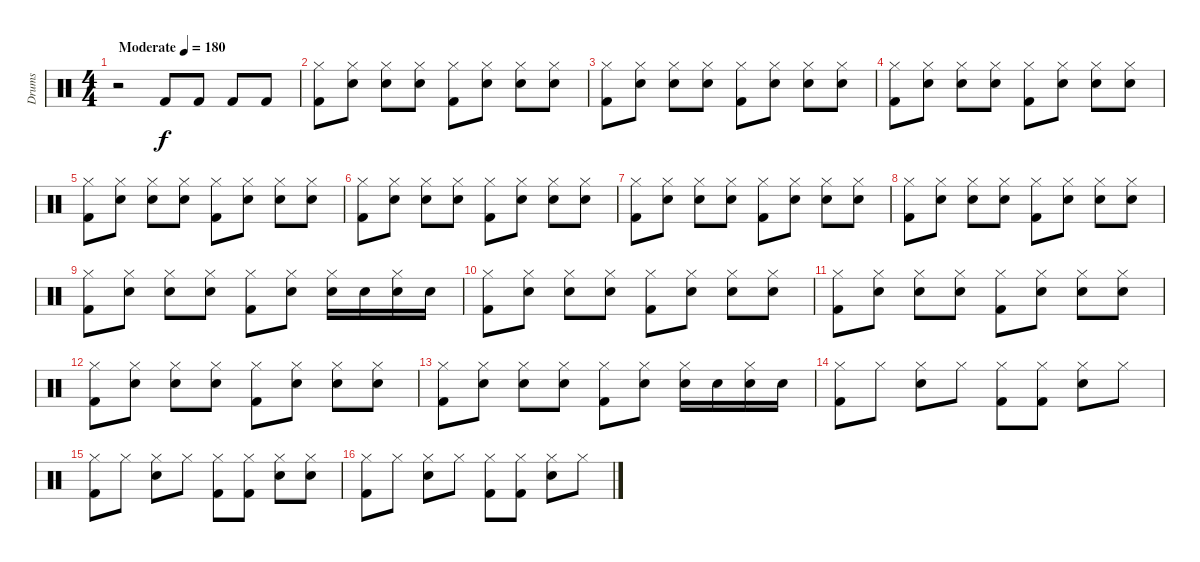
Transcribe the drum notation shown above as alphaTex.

\track ("Drums" "Drums") {instrument percussion}
\staff {score}
\articulation defaults
\ts (4 4)
\tempo (180 "Moderate")
\clef neutral
\ks c
r.2{dy f} "Kick (hit) 2".8 "Kick (hit) 2".8 "Kick (hit) 2".8 "Kick (hit) 2".8 |
("Kick (hit) 2" "Hi-Hat (closed)").8 ("Hi-Hat (closed)" "Snare (hit) 2").8 ("Hi-Hat (closed)" "Electric Snare (hit)").8 ("Hi-Hat (closed)" "Electric Snare (hit)").8 ("Hi-Hat (closed)" "Kick (hit) 2").8 ("Hi-Hat (closed)" "Snare (hit) 2").8 ("Hi-Hat (closed)" "Snare (hit) 2").8 ("Hi-Hat (closed)" "Snare (hit) 2").8 |
("Kick (hit) 2" "Hi-Hat (closed)").8 ("Hi-Hat (closed)" "Snare (hit) 2").8 ("Hi-Hat (closed)" "Electric Snare (hit)").8 ("Hi-Hat (closed)" "Electric Snare (hit)").8 ("Hi-Hat (closed)" "Kick (hit) 2").8 ("Hi-Hat (closed)" "Snare (hit) 2").8 ("Hi-Hat (closed)" "Snare (hit) 2").8 ("Hi-Hat (closed)" "Snare (hit) 2").8 |
("Kick (hit) 2" "Hi-Hat (closed)").8 ("Hi-Hat (closed)" "Snare (hit) 2").8 ("Hi-Hat (closed)" "Electric Snare (hit)").8 ("Hi-Hat (closed)" "Electric Snare (hit)").8 ("Hi-Hat (closed)" "Kick (hit) 2").8 ("Hi-Hat (closed)" "Snare (hit) 2").8 ("Hi-Hat (closed)" "Snare (hit) 2").8 ("Hi-Hat (closed)" "Snare (hit) 2").8 |
("Kick (hit) 2" "Hi-Hat (closed)").8 ("Hi-Hat (closed)" "Snare (hit) 2").8 ("Hi-Hat (closed)" "Electric Snare (hit)").8 ("Hi-Hat (closed)" "Electric Snare (hit)").8 ("Hi-Hat (closed)" "Kick (hit) 2").8 ("Hi-Hat (closed)" "Snare (hit) 2").8 ("Hi-Hat (closed)" "Snare (hit) 2").8 ("Hi-Hat (closed)" "Snare (hit) 2").8 |
("Kick (hit) 2" "Hi-Hat (closed)").8 ("Hi-Hat (closed)" "Snare (hit) 2").8 ("Hi-Hat (closed)" "Electric Snare (hit)").8 ("Hi-Hat (closed)" "Electric Snare (hit)").8 ("Hi-Hat (closed)" "Kick (hit) 2").8 ("Hi-Hat (closed)" "Snare (hit) 2").8 ("Hi-Hat (closed)" "Snare (hit) 2").8 ("Hi-Hat (closed)" "Snare (hit) 2").8 |
("Kick (hit) 2" "Hi-Hat (closed)").8 ("Hi-Hat (closed)" "Snare (hit) 2").8 ("Hi-Hat (closed)" "Electric Snare (hit)").8 ("Hi-Hat (closed)" "Electric Snare (hit)").8 ("Hi-Hat (closed)" "Kick (hit) 2").8 ("Hi-Hat (closed)" "Snare (hit) 2").8 ("Hi-Hat (closed)" "Snare (hit) 2").8 ("Hi-Hat (closed)" "Snare (hit) 2").8 |
("Kick (hit) 2" "Hi-Hat (closed)").8 ("Hi-Hat (closed)" "Snare (hit) 2").8 ("Hi-Hat (closed)" "Electric Snare (hit)").8 ("Hi-Hat (closed)" "Electric Snare (hit)").8 ("Hi-Hat (closed)" "Kick (hit) 2").8 ("Hi-Hat (closed)" "Snare (hit) 2").8 ("Hi-Hat (closed)" "Snare (hit) 2").8 ("Hi-Hat (closed)" "Snare (hit) 2").8 |
("Kick (hit) 2" "Hi-Hat (closed)").8 ("Hi-Hat (closed)" "Snare (hit) 2").8 ("Hi-Hat (closed)" "Electric Snare (hit)").8 ("Hi-Hat (closed)" "Electric Snare (hit)").8 ("Hi-Hat (closed)" "Kick (hit) 2").8 ("Hi-Hat (closed)" "Snare (hit) 2").8 ("Hi-Hat (closed)" "Snare (hit) 2").16 "Snare (hit) 2".16 ("Hi-Hat (closed)" "Snare (hit) 2").16 "Snare (hit) 2".16 |
("Kick (hit) 2" "Hi-Hat (closed)").8 ("Hi-Hat (closed)" "Snare (hit) 2").8 ("Hi-Hat (closed)" "Electric Snare (hit)").8 ("Hi-Hat (closed)" "Electric Snare (hit)").8 ("Hi-Hat (closed)" "Kick (hit) 2").8 ("Hi-Hat (closed)" "Snare (hit) 2").8 ("Hi-Hat (closed)" "Snare (hit) 2").8 ("Hi-Hat (closed)" "Snare (hit) 2").8 |
("Kick (hit) 2" "Hi-Hat (closed)").8 ("Hi-Hat (closed)" "Snare (hit) 2").8 ("Hi-Hat (closed)" "Electric Snare (hit)").8 ("Hi-Hat (closed)" "Electric Snare (hit)").8 ("Hi-Hat (closed)" "Kick (hit) 2").8 ("Hi-Hat (closed)" "Snare (hit) 2").8 ("Hi-Hat (closed)" "Snare (hit) 2").8 ("Hi-Hat (closed)" "Snare (hit) 2").8 |
("Kick (hit) 2" "Hi-Hat (closed)").8 ("Hi-Hat (closed)" "Snare (hit) 2").8 ("Hi-Hat (closed)" "Electric Snare (hit)").8 ("Hi-Hat (closed)" "Electric Snare (hit)").8 ("Hi-Hat (closed)" "Kick (hit) 2").8 ("Hi-Hat (closed)" "Snare (hit) 2").8 ("Hi-Hat (closed)" "Snare (hit) 2").8 ("Hi-Hat (closed)" "Snare (hit) 2").8 |
("Kick (hit) 2" "Hi-Hat (closed)").8 ("Hi-Hat (closed)" "Snare (hit) 2").8 ("Hi-Hat (closed)" "Electric Snare (hit)").8 ("Hi-Hat (closed)" "Electric Snare (hit)").8 ("Hi-Hat (closed)" "Kick (hit) 2").8 ("Hi-Hat (closed)" "Snare (hit) 2").8 ("Hi-Hat (closed)" "Snare (hit) 2").16 "Snare (hit) 2".16 ("Hi-Hat (closed)" "Snare (hit) 2").16 "Snare (hit) 2".16 |
("Hi-Hat (closed)" "Kick (hit) 2").8 "Hi-Hat (closed)".8 ("Hi-Hat (closed)" "Snare (hit) 2").8 "Hi-Hat (closed)".8 ("Hi-Hat (closed)" "Kick (hit) 2").8 ("Hi-Hat (closed)" "Kick (hit) 2").8 ("Hi-Hat (closed)" "Snare (hit) 2").8 "Hi-Hat (closed)".8 |
("Hi-Hat (closed)" "Kick (hit) 2").8 "Hi-Hat (closed)".8 ("Hi-Hat (closed)" "Snare (hit) 2").8 "Hi-Hat (closed)".8 ("Hi-Hat (closed)" "Kick (hit) 2").8 ("Hi-Hat (closed)" "Kick (hit) 2").8 ("Hi-Hat (closed)" "Snare (hit) 2").8 ("Hi-Hat (closed)" "Snare (hit) 2").8 |
("Hi-Hat (closed)" "Kick (hit) 2").8 "Hi-Hat (closed)".8 ("Hi-Hat (closed)" "Snare (hit) 2").8 "Hi-Hat (closed)".8 ("Hi-Hat (closed)" "Kick (hit) 2").8 ("Hi-Hat (closed)" "Kick (hit) 2").8 ("Hi-Hat (closed)" "Snare (hit) 2").8 "Hi-Hat (closed)".8
